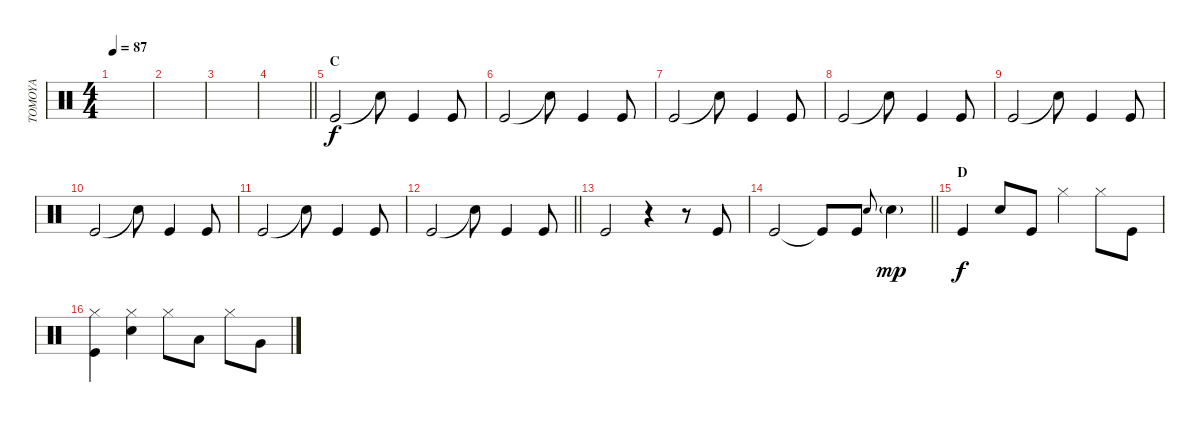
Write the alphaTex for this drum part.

\track ("TOMOYA" "TOMOYA") {instrument percussion}
\staff {score}
\articulation defaults
\ts (4 4)
\tempo 87
\clef neutral
\ks c
|
|
|
\barLineRight lightlight
|
\section ("" "C")
"Kick (hit)".2 "Snare (hit)"{t}.8 "Kick (hit)".4 "Kick (hit)".8 |
"Kick (hit)".2 "Snare (hit)"{t}.8 "Kick (hit)".4 "Kick (hit)".8 |
"Kick (hit)".2 "Snare (hit)"{t}.8 "Kick (hit)".4 "Kick (hit)".8 |
"Kick (hit)".2 "Snare (hit)"{t}.8 "Kick (hit)".4 "Kick (hit)".8 |
"Kick (hit)".2 "Snare (hit)"{t}.8 "Kick (hit)".4 "Kick (hit)".8 |
"Kick (hit)".2 "Snare (hit)"{t}.8 "Kick (hit)".4 "Kick (hit)".8 |
"Kick (hit)".2 "Snare (hit)"{t}.8 "Kick (hit)".4 "Kick (hit)".8 |
\barLineRight lightlight "Kick (hit)".2 "Snare (hit)"{t}.8 "Kick (hit)".4 "Kick (hit)".8
|
"Kick (hit)".2 r.4 r.8 "Kick (hit)".8 |
\barLineRight lightlight "Kick (hit)".2 "Kick (hit)"{t}.8 "Kick (hit)".8 "Snare (hit) 2".8{gr onbeat} "Snare (hit) 2"{g}.4{dy mp}
|
\section ("" "D")
"Kick (hit)".4{dy f} "Snare (hit) 2".8 "Kick (hit)".8 "Hi-Hat (closed)".4 "Hi-Hat (closed)".8 "Kick (hit)".8 |
("Kick (hit)" "Hi-Hat (closed)").4 ("Hi-Hat (closed)" "Snare (hit) 2").4 "Hi-Hat (closed)".8 "Low Tom (hit)".8 "Hi-Hat (closed)".8 "Very Low Tom (hit)".8
